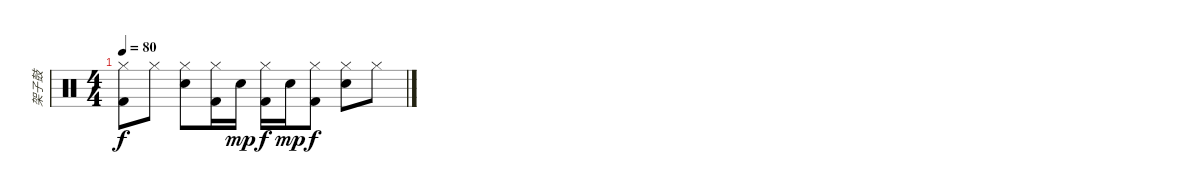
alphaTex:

\track ("架子鼓" "架子鼓") {instrument percussion}
\staff {score}
\articulation defaults
\ts (4 4)
\tempo 80
\clef neutral
\ks c
("Hi-Hat (closed)" "Kick (hit) 2").8{dy f} "Hi-Hat (closed)".8 ("Hi-Hat (closed)" "Snare (hit) 2").8 ("Hi-Hat (closed)" "Kick (hit) 2").16 "Snare (hit) 2".16{dy mp} ("Hi-Hat (closed)" "Kick (hit) 2").16{dy f} "Snare (hit) 2".16{dy mp} ("Hi-Hat (closed)" "Kick (hit) 2").8{dy f} ("Hi-Hat (closed)" "Snare (hit) 2").8 "Hi-Hat (closed)".8
